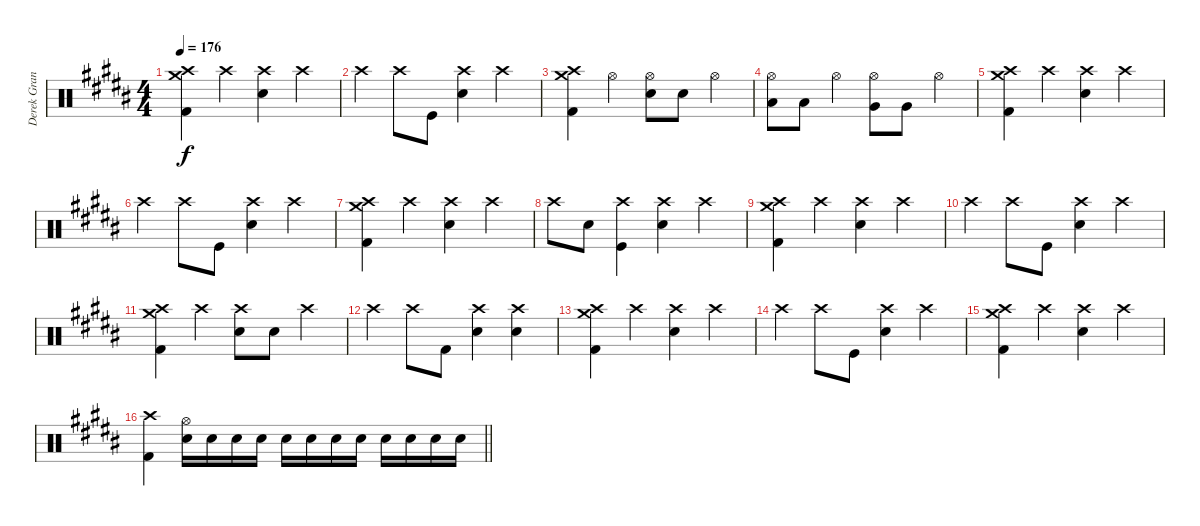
\track ("Derek Grant - Drums" "Derek Gran") {instrument percussion}
\staff {score}
\articulation defaults
\ts (4 4)
\tempo 176
\clef neutral
\ks b
("Crash medium (hit)" "Kick (hit) 2" "Crash high (hit)").4{dy f} "Crash high (hit)".4 ("Crash high (hit)" "Snare (hit) 2").4 "Crash high (hit)".4 |
"Crash high (hit)".4 "Crash high (hit)".8 "Kick (hit)".8 ("Crash high (hit)" "Snare (hit) 2").4 "Crash high (hit)".4 |
("Crash medium (hit)" "Kick (hit) 2" "Crash high (hit)").4 "Hi-Hat (open)".4 ("Hi-Hat (open)" "Snare (hit) 2").8 "Snare (hit) 2".8 "Hi-Hat (open)".4 |
("Hi-Hat (open)" "Low Tom (hit)").8 "Low Tom (hit)".8 "Hi-Hat (open)".4 ("Hi-Hat (open)" "Very Low Tom (hit)").8 "Very Low Tom (hit)".8 "Hi-Hat (open)".4 |
("Crash medium (hit)" "Kick (hit) 2" "Crash high (hit)").4 "Crash high (hit)".4 ("Crash high (hit)" "Snare (hit) 2").4 "Crash high (hit)".4 |
"Crash high (hit)".4 "Crash high (hit)".8 "Kick (hit)".8 ("Crash high (hit)" "Snare (hit) 2").4 "Crash high (hit)".4 |
("Crash medium (hit)" "Kick (hit) 2" "Crash high (hit)").4 "Crash high (hit)".4 ("Crash high (hit)" "Snare (hit) 2").4 "Crash high (hit)".4 |
"Crash high (hit)".8 "Snare (hit) 2".8 ("Crash high (hit)" "Kick (hit)").4 ("Crash high (hit)" "Snare (hit) 2").4 "Crash high (hit)".4 |
("Crash medium (hit)" "Kick (hit) 2" "Crash high (hit)").4 "Crash high (hit)".4 ("Crash high (hit)" "Snare (hit) 2").4 "Crash high (hit)".4 |
"Crash high (hit)".4 "Crash high (hit)".8 "Kick (hit)".8 ("Crash high (hit)" "Snare (hit) 2").4 "Crash high (hit)".4 |
("Crash medium (hit)" "Kick (hit) 2" "Crash high (hit)").4 "Crash high (hit)".4 ("Crash high (hit)" "Snare (hit) 2").8 "Snare (hit) 2".8 "Crash high (hit)".4 |
"Crash high (hit)".4 "Crash high (hit)".8 "Kick (hit) 2".8 ("Crash high (hit)" "Snare (hit) 2").4 ("Crash high (hit)" "Snare (hit) 2").4 |
("Crash medium (hit)" "Kick (hit) 2" "Crash high (hit)").4 "Crash high (hit)".4 ("Crash high (hit)" "Snare (hit) 2").4 "Crash high (hit)".4 |
"Crash high (hit)".4 "Crash high (hit)".8 "Kick (hit)".8 ("Crash high (hit)" "Snare (hit) 2").4 "Crash high (hit)".4 |
("Crash medium (hit)" "Kick (hit) 2" "Crash high (hit)").4 "Crash high (hit)".4 ("Crash high (hit)" "Snare (hit) 2").4 "Crash high (hit)".4 |
\barLineRight lightlight
("Crash high (hit)" "Kick (hit) 2").4 ("Snare (hit) 2" "Hi-Hat (open)").16 "Snare (hit) 2".16 "Snare (hit) 2".16 "Snare (hit) 2".16 "Snare (hit) 2".16 "Snare (hit) 2".16 "Snare (hit) 2".16 "Snare (hit) 2".16 "Snare (hit) 2".16 "Snare (hit) 2".16 "Snare (hit) 2".16 "Snare (hit) 2".16
